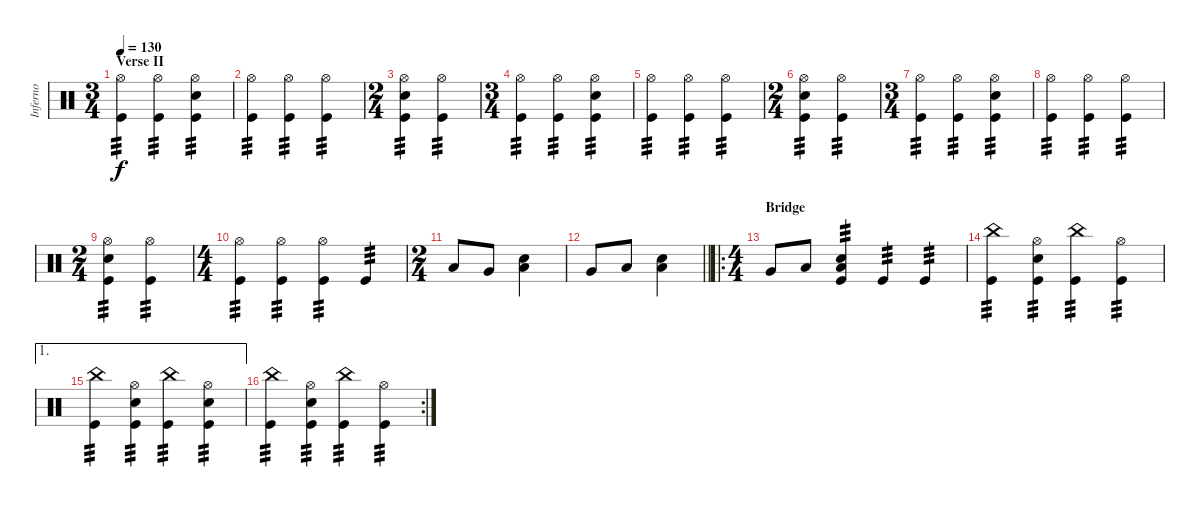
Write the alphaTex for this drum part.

\track ("Inferno" "Inferno") {instrument percussion}
\staff {score}
\articulation defaults
\ts (3 4)
\section ("" "Verse II")
\tempo 130
\clef neutral
\ks c
("Hi-Hat (open)" "Kick (hit)").4{tp 3 dy f} ("Hi-Hat (open)" "Kick (hit)").4{tp 3} ("Hi-Hat (open)" "Snare (hit) 2" "Kick (hit)").4{tp 3} |
("Hi-Hat (open)" "Kick (hit)").4{tp 3} ("Hi-Hat (open)" "Kick (hit)").4{tp 3} ("Hi-Hat (open)" "Kick (hit)").4{tp 3} |
\ts (2 4)
("Hi-Hat (open)" "Snare (hit) 2" "Kick (hit)").4{tp 3} ("Hi-Hat (open)" "Kick (hit)").4{tp 3} |
\ts (3 4)
("Hi-Hat (open)" "Kick (hit)").4{tp 3} ("Hi-Hat (open)" "Kick (hit)").4{tp 3} ("Hi-Hat (open)" "Snare (hit) 2" "Kick (hit)").4{tp 3} |
("Hi-Hat (open)" "Kick (hit)").4{tp 3} ("Hi-Hat (open)" "Kick (hit)").4{tp 3} ("Hi-Hat (open)" "Kick (hit)").4{tp 3} |
\ts (2 4)
("Hi-Hat (open)" "Snare (hit) 2" "Kick (hit)").4{tp 3} ("Hi-Hat (open)" "Kick (hit)").4{tp 3} |
\ts (3 4)
("Hi-Hat (open)" "Kick (hit)").4{tp 3} ("Hi-Hat (open)" "Kick (hit)").4{tp 3} ("Hi-Hat (open)" "Snare (hit) 2" "Kick (hit)").4{tp 3} |
("Hi-Hat (open)" "Kick (hit)").4{tp 3} ("Hi-Hat (open)" "Kick (hit)").4{tp 3} ("Hi-Hat (open)" "Kick (hit)").4{tp 3} |
\ts (2 4)
("Hi-Hat (open)" "Snare (hit) 2" "Kick (hit)").4{tp 3} ("Hi-Hat (open)" "Kick (hit)").4{tp 3} |
\ts (4 4)
("Hi-Hat (open)" "Kick (hit)").4{tp 3} ("Hi-Hat (open)" "Kick (hit)").4{tp 3} ("Hi-Hat (open)" "Kick (hit)").4{tp 3} "Kick (hit)".4{tp 3} |
\ts (2 4)
"Low Tom (hit)".8 "Very Low Tom (hit)".8 ("Snare (hit) 2" "Low Floor Tom (hit)").4 |
\barLineRight lightlight "Very Low Tom (hit)".8 "Low Floor Tom (hit)".8
("Low Floor Tom (hit)" "Snare (hit) 2").4 |
\ro
\ts (4 4)
\section ("" "Bridge")
"Very Low Tom (hit)".8 "Low Floor Tom (hit)".8 ("Low Floor Tom (hit)" "Snare (hit) 2" "Kick (hit)").4{tp 3} "Kick (hit)".4{tp 3} "Kick (hit)".4{tp 3} |
("China (hit)" "Kick (hit)").4{tp 3} ("Hi-Hat (open)" "Snare (hit) 2" "Kick (hit)").4{tp 3} ("China (hit)" "Kick (hit)").4{tp 3} ("Hi-Hat (open)" "Kick (hit)").4{tp 3} |
\ae 1
("China (hit)" "Kick (hit)").4{tp 3} ("Hi-Hat (open)" "Snare (hit) 2" "Kick (hit)").4{tp 3} ("China (hit)" "Kick (hit)").4{tp 3} ("Hi-Hat (open)" "Snare (hit) 2" "Kick (hit)").4{tp 3} |
\rc 2
("China (hit)" "Kick (hit)").4{tp 3} ("Hi-Hat (open)" "Snare (hit) 2" "Kick (hit)").4{tp 3} ("China (hit)" "Kick (hit)").4{tp 3} ("Hi-Hat (open)" "Kick (hit)").4{tp 3}
